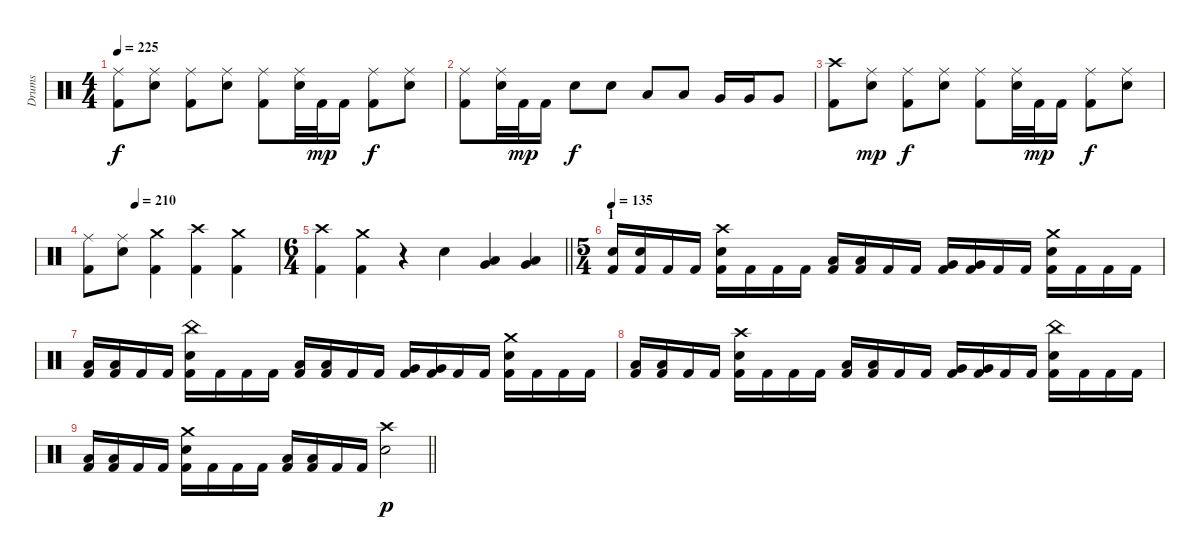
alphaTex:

\track ("Drums" "Drums") {instrument percussion}
\staff {score}
\articulation defaults
\ts (4 4)
\tempo 225
\clef neutral
\ks c
("Ride (middle)" "Kick (hit) 2").8{dy f} ("Ride (middle)" "Electric Snare (hit)").8 ("Ride (middle)" "Kick (hit) 2").8 ("Ride (middle)" "Electric Snare (hit)").8 ("Ride (middle)" "Kick (hit) 2").8 ("Ride (middle)" "Electric Snare (hit)").32 "Kick (hit) 2".32{dy mp} "Kick (hit) 2".16 ("Ride (middle)" "Kick (hit) 2").8{dy f} ("Ride (middle)" "Electric Snare (hit)").8 |
("Ride (middle)" "Kick (hit) 2").8 ("Ride (middle)" "Electric Snare (hit)").32 "Kick (hit) 2".32{dy mp} "Kick (hit) 2".16 "Electric Snare (hit)".8{dy f} "Electric Snare (hit)".8 "Low Tom (hit)".8 "Low Tom (hit)".8 "Very Low Tom (hit)".16 "Very Low Tom (hit)".16 "Very Low Tom (hit)".8 |
("Crash high (hit)" "Kick (hit) 2").8 ("Ride (middle)" "Electric Snare (hit)").8{dy mp} ("Ride (middle)" "Kick (hit) 2").8{dy f} ("Ride (middle)" "Electric Snare (hit)").8 ("Ride (middle)" "Kick (hit) 2").8 ("Ride (middle)" "Electric Snare (hit)").32 "Kick (hit) 2".32{dy mp} "Kick (hit) 2".16 ("Ride (middle)" "Kick (hit) 2").8{dy f} ("Ride (middle)" "Electric Snare (hit)").8 |
\tempo (210 0.25)
("Ride (middle)" "Kick (hit) 2").8 ("Ride (middle)" "Electric Snare (hit)").8 ("Crash medium (hit)" "Kick (hit) 2").4 ("Crash high (hit)" "Kick (hit) 2").4 ("Crash medium (hit)" "Kick (hit) 2").4 |
\ts (6 4)
\barLineRight lightlight
("Crash high (hit)" "Kick (hit) 2").4 ("Crash medium (hit)" "Kick (hit) 2").4 r.4 "Electric Snare (hit)".4 ("Low Tom (hit)" "Very Low Tom (hit)").4 ("Very Low Tom (hit)" "Low Floor Tom (hit)").4 |
\ts (5 4)
\section ("" "1")
\tempo 135
("Electric Snare (hit)" "Kick (hit) 2").16 ("Electric Snare (hit)" "Kick (hit) 2").16 "Kick (hit) 2".16 "Kick (hit) 2".16 ("Crash high (hit)" "Electric Snare (hit)" "Kick (hit) 2").16 "Kick (hit) 2".16 "Kick (hit) 2".16 "Kick (hit) 2".16 ("Low Tom (hit)" "Kick (hit) 2").16 ("Low Tom (hit)" "Kick (hit) 2").16 "Kick (hit) 2".16 "Kick (hit) 2".16 ("Very Low Tom (hit)" "Kick (hit) 2").16 ("Very Low Tom (hit)" "Kick (hit) 2").16 "Kick (hit) 2".16 "Kick (hit) 2".16 ("Crash medium (hit)" "Electric Snare (hit)" "Kick (hit) 2").16 "Kick (hit) 2".16 "Kick (hit) 2".16 "Kick (hit) 2".16 |
("Low Tom (hit)" "Kick (hit) 2").16 ("Low Tom (hit)" "Kick (hit) 2").16 "Kick (hit) 2".16 "Kick (hit) 2".16 ("China (hit)" "Electric Snare (hit)" "Kick (hit) 2").16 "Kick (hit) 2".16 "Kick (hit) 2".16 "Kick (hit) 2".16 ("Low Tom (hit)" "Kick (hit) 2").16 ("Low Tom (hit)" "Kick (hit) 2").16 "Kick (hit) 2".16 "Kick (hit) 2".16 ("Very Low Tom (hit)" "Kick (hit) 2").16 ("Very Low Tom (hit)" "Kick (hit) 2").16 "Kick (hit) 2".16 "Kick (hit) 2".16 ("Crash medium (hit)" "Electric Snare (hit)" "Kick (hit) 2").16 "Kick (hit) 2".16 "Kick (hit) 2".16 "Kick (hit) 2".16 |
("Low Tom (hit)" "Kick (hit) 2").16 ("Low Tom (hit)" "Kick (hit) 2").16 "Kick (hit) 2".16 "Kick (hit) 2".16 ("Crash high (hit)" "Electric Snare (hit)" "Kick (hit) 2").16 "Kick (hit) 2".16 "Kick (hit) 2".16 "Kick (hit) 2".16 ("Low Tom (hit)" "Kick (hit) 2").16 ("Low Tom (hit)" "Kick (hit) 2").16 "Kick (hit) 2".16 "Kick (hit) 2".16 ("Very Low Tom (hit)" "Kick (hit) 2").16 ("Very Low Tom (hit)" "Kick (hit) 2").16 "Kick (hit) 2".16 "Kick (hit) 2".16 ("China (hit)" "Electric Snare (hit)" "Kick (hit) 2").16 "Kick (hit) 2".16 "Kick (hit) 2".16 "Kick (hit) 2".16 |
\barLineRight lightlight
("Low Tom (hit)" "Kick (hit) 2").16 ("Low Tom (hit)" "Kick (hit) 2").16 "Kick (hit) 2".16 "Kick (hit) 2".16 ("Crash medium (hit)" "Electric Snare (hit)" "Kick (hit) 2").16 "Kick (hit) 2".16 "Kick (hit) 2".16 "Kick (hit) 2".16 ("Low Tom (hit)" "Kick (hit) 2").16 ("Low Tom (hit)" "Kick (hit) 2").16 "Kick (hit) 2".16 "Kick (hit) 2".16 ("Crash high (hit)" "Electric Snare (hit)").2{dy p}
